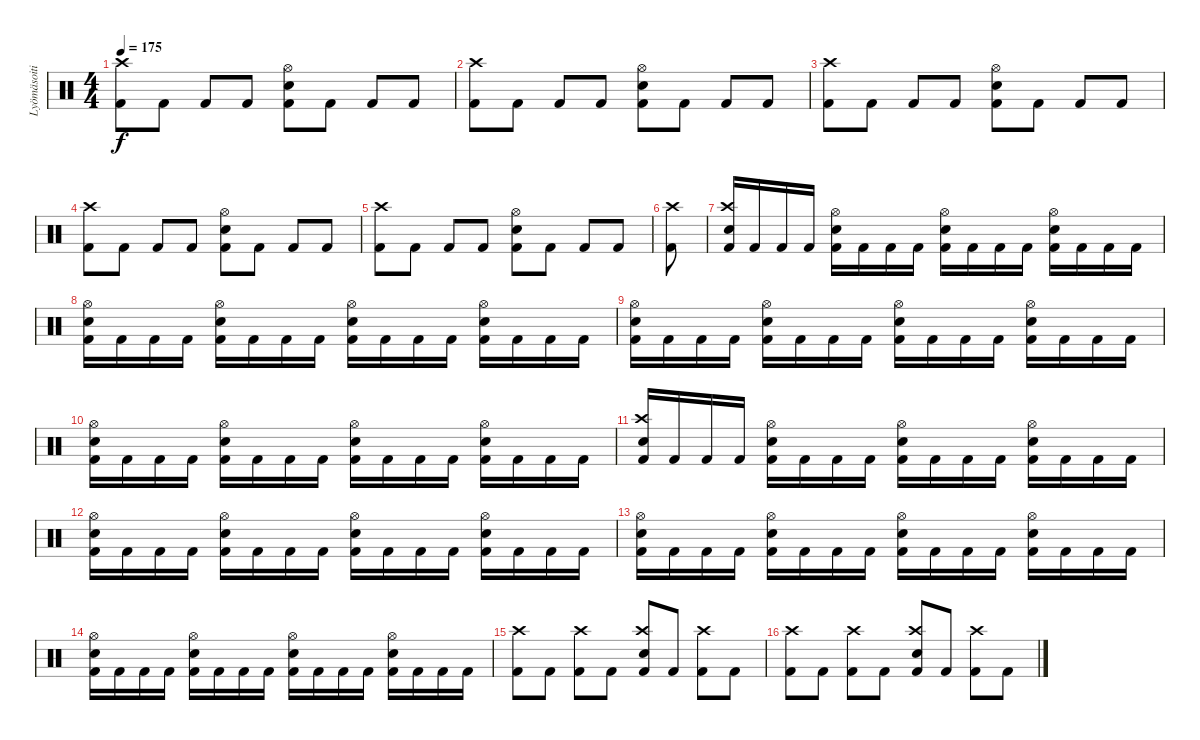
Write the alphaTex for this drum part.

\track ("Lyömäsoitin" "Lyömäsoiti") {instrument percussion}
\staff {score}
\articulation defaults
\ts (4 4)
\tempo 175
\clef neutral
\ks c
("Kick (hit) 2" "Crash high (hit)").8{dy f} "Kick (hit) 2".8 "Kick (hit) 2".8 "Kick (hit) 2".8 ("Kick (hit) 2" "Electric Snare (hit)" "Hi-Hat (open)").8 "Kick (hit) 2".8 "Kick (hit) 2".8 "Kick (hit) 2".8 |
("Kick (hit) 2" "Crash high (hit)").8 "Kick (hit) 2".8 "Kick (hit) 2".8 "Kick (hit) 2".8 ("Kick (hit) 2" "Electric Snare (hit)" "Hi-Hat (open)").8 "Kick (hit) 2".8 "Kick (hit) 2".8 "Kick (hit) 2".8 |
("Kick (hit) 2" "Crash high (hit)").8 "Kick (hit) 2".8 "Kick (hit) 2".8 "Kick (hit) 2".8 ("Kick (hit) 2" "Electric Snare (hit)" "Hi-Hat (open)").8 "Kick (hit) 2".8 "Kick (hit) 2".8 "Kick (hit) 2".8 |
("Kick (hit) 2" "Crash high (hit)").8 "Kick (hit) 2".8 "Kick (hit) 2".8 "Kick (hit) 2".8 ("Kick (hit) 2" "Electric Snare (hit)" "Hi-Hat (open)").8 "Kick (hit) 2".8 "Kick (hit) 2".8 "Kick (hit) 2".8 |
("Kick (hit) 2" "Crash high (hit)").8 "Kick (hit) 2".8 "Kick (hit) 2".8 "Kick (hit) 2".8 ("Kick (hit) 2" "Electric Snare (hit)" "Hi-Hat (open)").8 "Kick (hit) 2".8 "Kick (hit) 2".8 "Kick (hit) 2".8 |
("Kick (hit) 2" "Crash high (hit)").8 |
("Kick (hit) 2" "Electric Snare (hit)" "Crash high (hit)").16 "Kick (hit) 2".16 "Kick (hit) 2".16 "Kick (hit) 2".16 ("Kick (hit) 2" "Electric Snare (hit)" "Hi-Hat (open)").16 "Kick (hit) 2".16 "Kick (hit) 2".16 "Kick (hit) 2".16 ("Kick (hit) 2" "Electric Snare (hit)" "Hi-Hat (open)").16 "Kick (hit) 2".16 "Kick (hit) 2".16 "Kick (hit) 2".16 ("Kick (hit) 2" "Electric Snare (hit)" "Hi-Hat (open)").16 "Kick (hit) 2".16 "Kick (hit) 2".16 "Kick (hit) 2".16 |
("Kick (hit) 2" "Electric Snare (hit)" "Hi-Hat (open)").16 "Kick (hit) 2".16 "Kick (hit) 2".16 "Kick (hit) 2".16 ("Kick (hit) 2" "Electric Snare (hit)" "Hi-Hat (open)").16 "Kick (hit) 2".16 "Kick (hit) 2".16 "Kick (hit) 2".16 ("Kick (hit) 2" "Electric Snare (hit)" "Hi-Hat (open)").16 "Kick (hit) 2".16 "Kick (hit) 2".16 "Kick (hit) 2".16 ("Kick (hit) 2" "Electric Snare (hit)" "Hi-Hat (open)").16 "Kick (hit) 2".16 "Kick (hit) 2".16 "Kick (hit) 2".16 |
("Kick (hit) 2" "Electric Snare (hit)" "Hi-Hat (open)").16 "Kick (hit) 2".16 "Kick (hit) 2".16 "Kick (hit) 2".16 ("Kick (hit) 2" "Electric Snare (hit)" "Hi-Hat (open)").16 "Kick (hit) 2".16 "Kick (hit) 2".16 "Kick (hit) 2".16 ("Kick (hit) 2" "Electric Snare (hit)" "Hi-Hat (open)").16 "Kick (hit) 2".16 "Kick (hit) 2".16 "Kick (hit) 2".16 ("Kick (hit) 2" "Electric Snare (hit)" "Hi-Hat (open)").16 "Kick (hit) 2".16 "Kick (hit) 2".16 "Kick (hit) 2".16 |
("Kick (hit) 2" "Electric Snare (hit)" "Hi-Hat (open)").16 "Kick (hit) 2".16 "Kick (hit) 2".16 "Kick (hit) 2".16 ("Kick (hit) 2" "Electric Snare (hit)" "Hi-Hat (open)").16 "Kick (hit) 2".16 "Kick (hit) 2".16 "Kick (hit) 2".16 ("Kick (hit) 2" "Electric Snare (hit)" "Hi-Hat (open)").16 "Kick (hit) 2".16 "Kick (hit) 2".16 "Kick (hit) 2".16 ("Kick (hit) 2" "Electric Snare (hit)" "Hi-Hat (open)").16 "Kick (hit) 2".16 "Kick (hit) 2".16 "Kick (hit) 2".16 |
("Kick (hit) 2" "Electric Snare (hit)" "Crash high (hit)").16 "Kick (hit) 2".16 "Kick (hit) 2".16 "Kick (hit) 2".16 ("Kick (hit) 2" "Electric Snare (hit)" "Hi-Hat (open)").16 "Kick (hit) 2".16 "Kick (hit) 2".16 "Kick (hit) 2".16 ("Kick (hit) 2" "Electric Snare (hit)" "Hi-Hat (open)").16 "Kick (hit) 2".16 "Kick (hit) 2".16 "Kick (hit) 2".16 ("Kick (hit) 2" "Electric Snare (hit)" "Hi-Hat (open)").16 "Kick (hit) 2".16 "Kick (hit) 2".16 "Kick (hit) 2".16 |
("Kick (hit) 2" "Electric Snare (hit)" "Hi-Hat (open)").16 "Kick (hit) 2".16 "Kick (hit) 2".16 "Kick (hit) 2".16 ("Kick (hit) 2" "Electric Snare (hit)" "Hi-Hat (open)").16 "Kick (hit) 2".16 "Kick (hit) 2".16 "Kick (hit) 2".16 ("Kick (hit) 2" "Electric Snare (hit)" "Hi-Hat (open)").16 "Kick (hit) 2".16 "Kick (hit) 2".16 "Kick (hit) 2".16 ("Kick (hit) 2" "Electric Snare (hit)" "Hi-Hat (open)").16 "Kick (hit) 2".16 "Kick (hit) 2".16 "Kick (hit) 2".16 |
("Kick (hit) 2" "Electric Snare (hit)" "Hi-Hat (open)").16 "Kick (hit) 2".16 "Kick (hit) 2".16 "Kick (hit) 2".16 ("Kick (hit) 2" "Electric Snare (hit)" "Hi-Hat (open)").16 "Kick (hit) 2".16 "Kick (hit) 2".16 "Kick (hit) 2".16 ("Kick (hit) 2" "Electric Snare (hit)" "Hi-Hat (open)").16 "Kick (hit) 2".16 "Kick (hit) 2".16 "Kick (hit) 2".16 ("Kick (hit) 2" "Electric Snare (hit)" "Hi-Hat (open)").16 "Kick (hit) 2".16 "Kick (hit) 2".16 "Kick (hit) 2".16 |
("Kick (hit) 2" "Electric Snare (hit)" "Hi-Hat (open)").16 "Kick (hit) 2".16 "Kick (hit) 2".16 "Kick (hit) 2".16 ("Kick (hit) 2" "Electric Snare (hit)" "Hi-Hat (open)").16 "Kick (hit) 2".16 "Kick (hit) 2".16 "Kick (hit) 2".16 ("Kick (hit) 2" "Electric Snare (hit)" "Hi-Hat (open)").16 "Kick (hit) 2".16 "Kick (hit) 2".16 "Kick (hit) 2".16 ("Kick (hit) 2" "Electric Snare (hit)" "Hi-Hat (open)").16 "Kick (hit) 2".16 "Kick (hit) 2".16 "Kick (hit) 2".16 |
("Kick (hit) 2" "Crash high (hit)").8 "Kick (hit) 2".8 ("Kick (hit) 2" "Crash high (hit)").8 "Kick (hit) 2".8 ("Kick (hit) 2" "Electric Snare (hit)" "Crash high (hit)").8 "Kick (hit) 2".8 ("Kick (hit) 2" "Crash high (hit)").8 "Kick (hit) 2".8 |
("Kick (hit) 2" "Crash high (hit)").8 "Kick (hit) 2".8 ("Kick (hit) 2" "Crash high (hit)").8 "Kick (hit) 2".8 ("Kick (hit) 2" "Electric Snare (hit)" "Crash high (hit)").8 "Kick (hit) 2".8 ("Kick (hit) 2" "Crash high (hit)").8 "Kick (hit) 2".8
